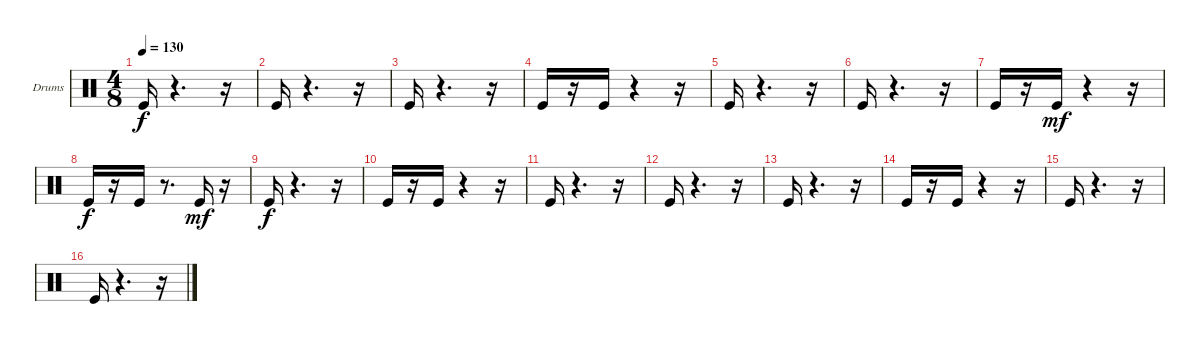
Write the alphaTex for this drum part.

\bracketExtendMode groupsimilarinstruments
\firstSystemTrackNameOrientation horizontal
\otherSystemsTrackNameOrientation horizontal
\track ("Ударные" "Drums") {instrument percussion}
\staff {score}
\articulation defaults
\ts (4 8)
\tempo 130
\clef neutral
\ks c "Kick (hit)".16{dy f}
r.4{d} r.16 |
"Kick (hit)".16 r.4{d} r.16 |
"Kick (hit)".16 r.4{d} r.16 |
"Kick (hit)".16 r.16 "Kick (hit)".16 r.4 r.16 |
"Kick (hit)".16 r.4{d} r.16 |
"Kick (hit)".16 r.4{d} r.16 |
"Kick (hit)".16 r.16 "Kick (hit)".16{dy mf} r.4 r.16 |
"Kick (hit)".16{dy f} r.16 "Kick (hit)".16 r.8{d} "Kick (hit)".16{dy mf} r.16 |
"Kick (hit)".16{dy f} r.4{d} r.16 |
"Kick (hit)".16 r.16 "Kick (hit)".16 r.4 r.16 |
"Kick (hit)".16 r.4{d} r.16 |
"Kick (hit)".16 r.4{d} r.16 |
"Kick (hit)".16 r.4{d} r.16 |
"Kick (hit)".16 r.16 "Kick (hit)".16 r.4 r.16 |
"Kick (hit)".16 r.4{d} r.16 |
"Kick (hit)".16 r.4{d} r.16
